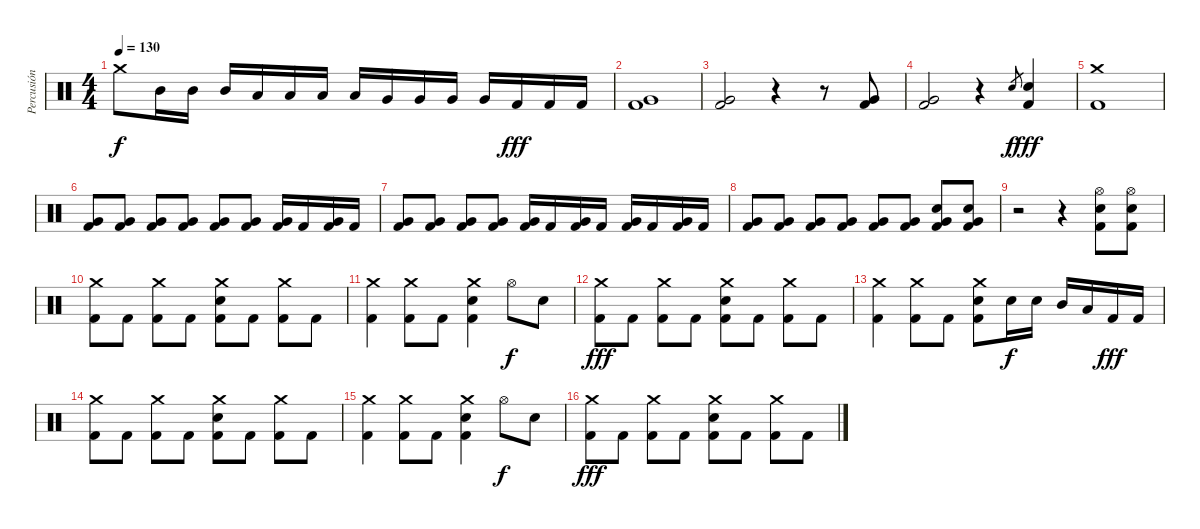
\track ("Percusión" "Percusión") {instrument percussion}
\staff {score}
\articulation defaults
\ts (4 4)
\tempo 130
\clef neutral
\ks c "Crash medium (hit)".8{dy f} "Mid Tom (hit)".16 "Mid Tom (hit)".16 "Mid Tom (hit)".16 "Low Tom (hit)".16 "Low Tom (hit)".16 "Low Tom (hit)".16 "Low Tom (hit)".16 "Very Low Tom (hit)".16 "Very Low Tom (hit)".16 "Very Low Tom (hit)".16 "Very Low Tom (hit)".16 "Kick (hit) 2".16{dy fff} "Kick (hit) 2".16 "Kick (hit) 2".16
|
("Very Low Tom (hit)" "Kick (hit) 2").1 |
("Very Low Tom (hit)" "Kick (hit) 2").2 r.4 r.8 ("Very Low Tom (hit)" "Kick (hit) 2").8 |
("Very Low Tom (hit)" "Kick (hit) 2").2 r.4 "Electric Snare (hit)".8{gr dy f} ("Electric Snare (hit)" "Kick (hit) 2").4{dy fff} |
("Crash medium (hit)" "Kick (hit) 2").1 |
("Very Low Tom (hit)" "Kick (hit) 2").8 ("Very Low Tom (hit)" "Kick (hit) 2").8 ("Very Low Tom (hit)" "Kick (hit) 2").8 ("Very Low Tom (hit)" "Kick (hit) 2").8 ("Very Low Tom (hit)" "Kick (hit) 2").8 ("Very Low Tom (hit)" "Kick (hit) 2").8 ("Very Low Tom (hit)" "Kick (hit) 2").16 "Kick (hit) 2".16 ("Very Low Tom (hit)" "Kick (hit) 2").16 "Kick (hit) 2".16 |
("Very Low Tom (hit)" "Kick (hit) 2").8 ("Very Low Tom (hit)" "Kick (hit) 2").8 ("Very Low Tom (hit)" "Kick (hit) 2").8 ("Very Low Tom (hit)" "Kick (hit) 2").8 ("Very Low Tom (hit)" "Kick (hit) 2").16 "Kick (hit) 2".16 ("Very Low Tom (hit)" "Kick (hit) 2").16 "Kick (hit) 2".16 ("Very Low Tom (hit)" "Kick (hit) 2").16 "Kick (hit) 2".16 ("Very Low Tom (hit)" "Kick (hit) 2").16 "Kick (hit) 2".16 |
("Very Low Tom (hit)" "Kick (hit) 2").8 ("Very Low Tom (hit)" "Kick (hit) 2").8 ("Very Low Tom (hit)" "Kick (hit) 2").8 ("Very Low Tom (hit)" "Kick (hit) 2").8 ("Very Low Tom (hit)" "Kick (hit) 2").8 ("Very Low Tom (hit)" "Kick (hit) 2").8 ("Very Low Tom (hit)" "Electric Snare (hit)" "Kick (hit) 2").8 ("Very Low Tom (hit)" "Electric Snare (hit)" "Kick (hit) 2").8 |
r.2 r.4 ("Hi-Hat (open)" "Electric Snare (hit)" "Kick (hit) 2").8 ("Hi-Hat (open)" "Electric Snare (hit)" "Kick (hit) 2").8 |
("Crash medium (hit)" "Kick (hit) 2").8 "Kick (hit) 2".8 ("Crash medium (hit)" "Kick (hit) 2").8 "Kick (hit) 2".8 ("Crash medium (hit)" "Electric Snare (hit)" "Kick (hit) 2").8 "Kick (hit) 2".8 ("Crash medium (hit)" "Kick (hit) 2").8 "Kick (hit) 2".8 |
("Crash medium (hit)" "Kick (hit) 2").4 ("Crash medium (hit)" "Kick (hit) 2").8 "Kick (hit) 2".8 ("Crash medium (hit)" "Electric Snare (hit)" "Kick (hit) 2").4 "Hi-Hat (open)".8{dy f} "Electric Snare (hit)".8 |
("Crash medium (hit)" "Kick (hit) 2").8{dy fff} "Kick (hit) 2".8 ("Crash medium (hit)" "Kick (hit) 2").8 "Kick (hit) 2".8 ("Crash medium (hit)" "Electric Snare (hit)" "Kick (hit) 2").8 "Kick (hit) 2".8 ("Crash medium (hit)" "Kick (hit) 2").8 "Kick (hit) 2".8 |
("Crash medium (hit)" "Kick (hit) 2").4 ("Crash medium (hit)" "Kick (hit) 2").8 "Kick (hit) 2".8 ("Crash medium (hit)" "Electric Snare (hit)" "Kick (hit) 2").8 "Electric Snare (hit)".16{dy f} "Electric Snare (hit)".16 "Mid Tom (hit)".16 "Low Tom (hit)".16 "Kick (hit) 2".16{dy fff} "Kick (hit) 2".16 |
("Crash medium (hit)" "Kick (hit) 2").8 "Kick (hit) 2".8 ("Crash medium (hit)" "Kick (hit) 2").8 "Kick (hit) 2".8 ("Crash medium (hit)" "Electric Snare (hit)" "Kick (hit) 2").8 "Kick (hit) 2".8 ("Crash medium (hit)" "Kick (hit) 2").8 "Kick (hit) 2".8 |
("Crash medium (hit)" "Kick (hit) 2").4 ("Crash medium (hit)" "Kick (hit) 2").8 "Kick (hit) 2".8 ("Crash medium (hit)" "Electric Snare (hit)" "Kick (hit) 2").4 "Hi-Hat (open)".8{dy f} "Electric Snare (hit)".8 |
("Crash medium (hit)" "Kick (hit) 2").8{dy fff} "Kick (hit) 2".8 ("Crash medium (hit)" "Kick (hit) 2").8 "Kick (hit) 2".8 ("Crash medium (hit)" "Electric Snare (hit)" "Kick (hit) 2").8 "Kick (hit) 2".8 ("Crash medium (hit)" "Kick (hit) 2").8 "Kick (hit) 2".8
